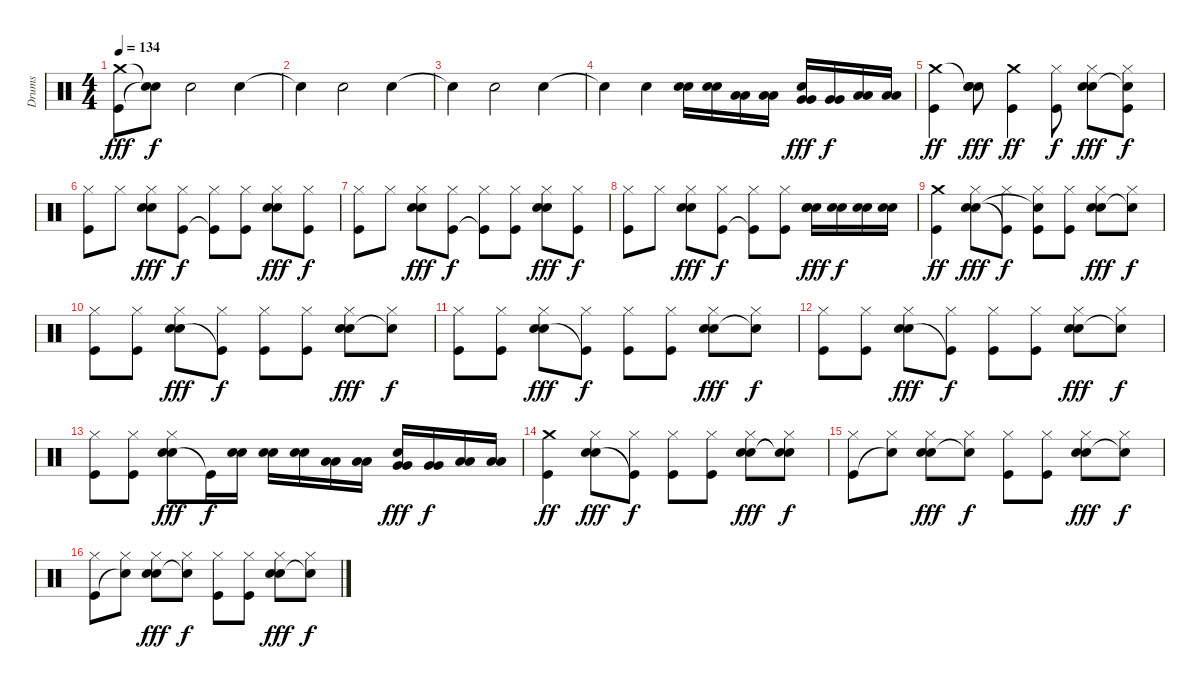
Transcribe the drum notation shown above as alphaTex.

\track ("Drums" "Drums") {instrument percussion}
\staff {score}
\articulation defaults
\ts (4 4)
\tempo 134
\clef neutral
\ks c
("Kick (hit)" "Crash medium (hit)").8{dy fff} ("Snare (hit)"{t} "Snare (hit)"{t}).8{dy f} "Hand Clap (hit)".2 "Hand Clap (hit)".4 |
"Snare (hit)"{t}.4 "Hand Clap (hit)".2 "Hand Clap (hit)".4 |
"Snare (hit)"{t}.4 "Hand Clap (hit)".2 "Hand Clap (hit)".4 |
"Hand Clap (hit)"{t}.4 "Hand Clap (hit)".4 ("Snare (hit) 2" "Snare (hit) 2").16 ("Snare (hit) 2" "Snare (hit) 2").16 ("Low Tom (hit)" "Low Tom (hit)").16 ("Low Tom (hit)" "Low Tom (hit)").16 ("Very Low Tom (hit)" "Very Low Tom (hit)" "Hand Clap (hit)").16{dy fff} ("Very Low Tom (hit)" "Very Low Tom (hit)").16{dy f} ("Low Floor Tom (hit)" "Low Floor Tom (hit)").16 ("Low Floor Tom (hit)" "Low Floor Tom (hit)").16 |
("Kick (hit)" "Crash medium (hit)").4{dy ff} ("Snare (hit) 2" "Snare (hit)"{t} "Hand Clap (hit)").8{dy fff} ("Kick (hit)" "Crash medium (hit)").4{dy ff} ("Kick (hit)" "Hi-Hat (closed)").8{dy f} ("Snare (hit) 2" "Hi-Hat (closed)" "Hand Clap (hit)").8{dy fff} ("Kick (hit)" "Hi-Hat (closed)" "Snare (hit)"{t}).8{dy f} |
("Kick (hit)" "Hi-Hat (closed)").8 "Hi-Hat (closed)".8 ("Snare (hit) 2" "Hi-Hat (closed)" "Hand Clap (hit)").8{dy fff} ("Kick (hit)" "Hi-Hat (closed)").8{dy f} ("Kick (hit)"{t} "Hi-Hat (closed)").8 ("Kick (hit)" "Hi-Hat (closed)").8 ("Snare (hit) 2" "Hi-Hat (closed)" "Hand Clap (hit)").8{dy fff} ("Kick (hit)" "Hi-Hat (closed)").8{dy f} |
("Kick (hit)" "Hi-Hat (closed)").8 "Hi-Hat (closed)".8 ("Snare (hit) 2" "Hi-Hat (closed)" "Hand Clap (hit)").8{dy fff} ("Kick (hit)" "Hi-Hat (closed)").8{dy f} ("Kick (hit)"{t} "Hi-Hat (closed)").8 ("Kick (hit)" "Hi-Hat (closed)").8 ("Snare (hit) 2" "Hi-Hat (closed)" "Hand Clap (hit)").8{dy fff} ("Kick (hit)" "Hi-Hat (closed)").8{dy f} |
("Kick (hit)" "Hi-Hat (closed)").8 "Hi-Hat (closed)".8 ("Snare (hit) 2" "Hi-Hat (closed)" "Hand Clap (hit)").8{dy fff} ("Kick (hit)" "Hi-Hat (closed)").8{dy f} ("Kick (hit)"{t} "Hi-Hat (closed)").8 ("Kick (hit)" "Hi-Hat (closed)").8 ("Snare (hit) 2" "Snare (hit) 2" "Hand Clap (hit)").16{dy fff} ("Snare (hit) 2" "Snare (hit) 2").16{dy f} ("Snare (hit) 2" "Snare (hit) 2").16 ("Snare (hit) 2" "Snare (hit) 2").16 |
("Kick (hit)" "Crash medium (hit)").4{dy ff} ("Snare (hit) 2" "Hi-Hat (closed)" "Hand Clap (hit)").8{dy fff} ("Kick (hit)"{t} "Hi-Hat (closed)").8{dy f} ("Kick (hit)" "Hi-Hat (closed)" "Snare (hit)"{t}).8 ("Kick (hit)" "Hi-Hat (closed)").8 ("Snare (hit) 2" "Hi-Hat (closed)" "Hand Clap (hit)").8{dy fff} ("Snare (hit)"{t} "Hi-Hat (closed)").8{dy f} |
("Kick (hit)" "Hi-Hat (closed)").8 ("Kick (hit)" "Hi-Hat (closed)").8 ("Snare (hit) 2" "Hi-Hat (closed)" "Hand Clap (hit)").8{dy fff} ("Kick (hit)"{t} "Hi-Hat (closed)").8{dy f} ("Kick (hit)" "Hi-Hat (closed)").8 ("Kick (hit)" "Hi-Hat (closed)").8 ("Snare (hit) 2" "Hi-Hat (closed)" "Hand Clap (hit)").8{dy fff} ("Snare (hit)"{t} "Hi-Hat (closed)").8{dy f} |
("Kick (hit)" "Hi-Hat (closed)").8 ("Kick (hit)" "Hi-Hat (closed)").8 ("Snare (hit) 2" "Hi-Hat (closed)" "Hand Clap (hit)").8{dy fff} ("Kick (hit)"{t} "Hi-Hat (closed)").8{dy f} ("Kick (hit)" "Hi-Hat (closed)").8 ("Kick (hit)" "Hi-Hat (closed)").8 ("Snare (hit) 2" "Hi-Hat (closed)" "Hand Clap (hit)").8{dy fff} ("Snare (hit)"{t} "Hi-Hat (closed)").8{dy f} |
("Kick (hit)" "Hi-Hat (closed)").8 ("Kick (hit)" "Hi-Hat (closed)").8 ("Snare (hit) 2" "Hi-Hat (closed)" "Hand Clap (hit)").8{dy fff} ("Kick (hit)"{t} "Hi-Hat (closed)").8{dy f} ("Kick (hit)" "Hi-Hat (closed)").8 ("Kick (hit)" "Hi-Hat (closed)").8 ("Snare (hit) 2" "Hi-Hat (closed)" "Hand Clap (hit)").8{dy fff} ("Snare (hit)"{t} "Hi-Hat (closed)").8{dy f} |
("Kick (hit)" "Hi-Hat (closed)").8 ("Kick (hit)" "Hi-Hat (closed)").8 ("Snare (hit) 2" "Hi-Hat (closed)" "Hand Clap (hit)").8{dy fff} "Kick (hit)"{t}.16{dy f} ("Snare (hit) 2" "Snare (hit) 2").16 ("Snare (hit) 2" "Snare (hit) 2").16 ("Snare (hit) 2" "Snare (hit) 2").16 ("Low Tom (hit)" "Low Tom (hit)").16 ("Low Tom (hit)" "Low Tom (hit)").16 ("Very Low Tom (hit)" "Very Low Tom (hit)" "Hand Clap (hit)").16{dy fff} ("Very Low Tom (hit)" "Very Low Tom (hit)").16{dy f} ("Low Floor Tom (hit)" "Low Floor Tom (hit)").16 ("Low Floor Tom (hit)" "Low Floor Tom (hit)").16 |
("Kick (hit)" "Crash medium (hit)").4{dy ff} ("Snare (hit) 2" "Hi-Hat (closed)" "Hand Clap (hit)").8{dy fff} ("Kick (hit)"{t} "Hi-Hat (closed)").8{dy f} ("Kick (hit)" "Hi-Hat (closed)").8 ("Kick (hit)" "Hi-Hat (closed)").8 ("Snare (hit) 2" "Hi-Hat (closed)" "Hand Clap (hit)").8{dy fff} ("Snare (hit)"{t} "Hi-Hat (closed)" "Snare (hit)"{t}).8{dy f} |
("Kick (hit)" "Hi-Hat (closed)").8 ("Snare (hit)"{t} "Hi-Hat (closed)").8 ("Snare (hit) 2" "Hi-Hat (closed)" "Hand Clap (hit)").8{dy fff} ("Snare (hit)"{t} "Hi-Hat (closed)").8{dy f} ("Kick (hit)" "Hi-Hat (closed)").8 ("Kick (hit)" "Hi-Hat (closed)").8 ("Snare (hit) 2" "Hi-Hat (closed)" "Hand Clap (hit)").8{dy fff} ("Snare (hit)"{t} "Hi-Hat (closed)").8{dy f} |
("Kick (hit)" "Hi-Hat (closed)").8 ("Snare (hit)"{t} "Hi-Hat (closed)").8 ("Snare (hit) 2" "Hi-Hat (closed)" "Hand Clap (hit)").8{dy fff} ("Snare (hit)"{t} "Hi-Hat (closed)").8{dy f} ("Kick (hit)" "Hi-Hat (closed)").8 ("Kick (hit)" "Hi-Hat (closed)").8 ("Snare (hit) 2" "Hi-Hat (closed)" "Hand Clap (hit)").8{dy fff} ("Snare (hit)"{t} "Hi-Hat (closed)").8{dy f}
